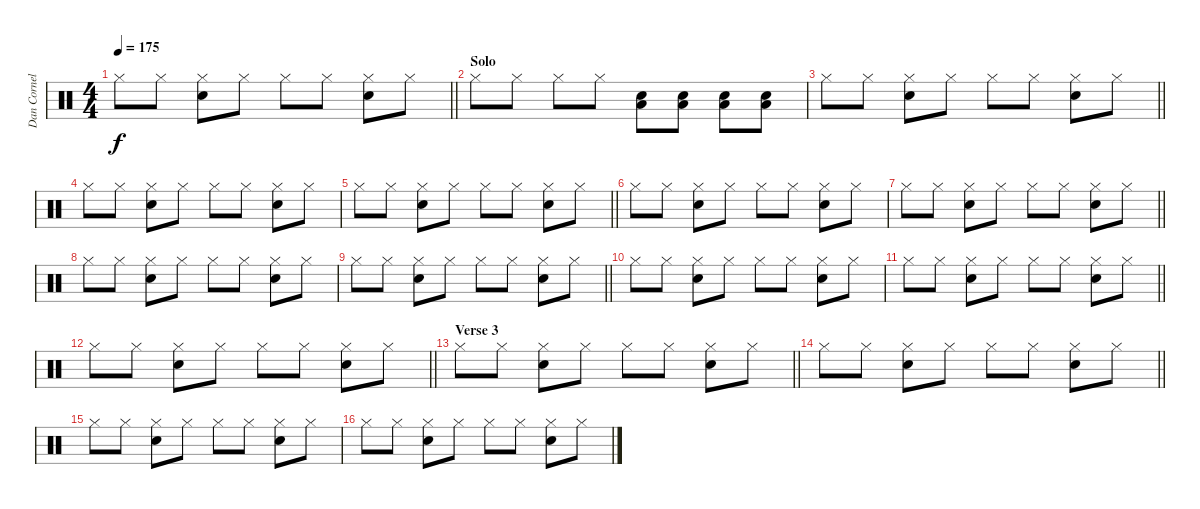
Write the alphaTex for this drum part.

\track ("Dan Cornelius" "Dan Cornel") {instrument percussion}
\staff {score}
\articulation defaults
\ts (4 4)
\tempo 175
\clef neutral
\barLineRight lightlight
\ks c "Hi-Hat (closed)".8{dy f} "Hi-Hat (closed)".8
("Hi-Hat (closed)" "Electric Snare (hit)").8 "Hi-Hat (closed)".8 "Hi-Hat (closed)".8 "Hi-Hat (closed)".8 ("Hi-Hat (closed)" "Electric Snare (hit)").8 "Hi-Hat (closed)".8 |
\section ("" "Solo")
"Hi-Hat (closed)".8 "Hi-Hat (closed)".8 "Hi-Hat (closed)".8 "Hi-Hat (closed)".8 ("Low Tom (hit)" "Electric Snare (hit)").8 ("Low Tom (hit)" "Electric Snare (hit)").8 ("Low Tom (hit)" "Electric Snare (hit)").8 ("Low Tom (hit)" "Electric Snare (hit)").8 |
\barLineRight lightlight "Hi-Hat (closed)".8 "Hi-Hat (closed)".8
("Hi-Hat (closed)" "Electric Snare (hit)").8 "Hi-Hat (closed)".8 "Hi-Hat (closed)".8 "Hi-Hat (closed)".8 ("Hi-Hat (closed)" "Electric Snare (hit)").8 "Hi-Hat (closed)".8 |
\section ("" "")
"Hi-Hat (closed)".8 "Hi-Hat (closed)".8 ("Hi-Hat (closed)" "Electric Snare (hit)").8 "Hi-Hat (closed)".8 "Hi-Hat (closed)".8 "Hi-Hat (closed)".8 ("Hi-Hat (closed)" "Electric Snare (hit)").8 "Hi-Hat (closed)".8 |
\barLineRight lightlight "Hi-Hat (closed)".8 "Hi-Hat (closed)".8
("Hi-Hat (closed)" "Electric Snare (hit)").8 "Hi-Hat (closed)".8 "Hi-Hat (closed)".8 "Hi-Hat (closed)".8 ("Hi-Hat (closed)" "Electric Snare (hit)").8 "Hi-Hat (closed)".8 |
"Hi-Hat (closed)".8 "Hi-Hat (closed)".8 ("Hi-Hat (closed)" "Electric Snare (hit)").8 "Hi-Hat (closed)".8 "Hi-Hat (closed)".8 "Hi-Hat (closed)".8 ("Hi-Hat (closed)" "Electric Snare (hit)").8 "Hi-Hat (closed)".8 |
\barLineRight lightlight "Hi-Hat (closed)".8 "Hi-Hat (closed)".8
("Hi-Hat (closed)" "Electric Snare (hit)").8 "Hi-Hat (closed)".8 "Hi-Hat (closed)".8 "Hi-Hat (closed)".8 ("Hi-Hat (closed)" "Electric Snare (hit)").8 "Hi-Hat (closed)".8 |
"Hi-Hat (closed)".8 "Hi-Hat (closed)".8 ("Hi-Hat (closed)" "Electric Snare (hit)").8 "Hi-Hat (closed)".8 "Hi-Hat (closed)".8 "Hi-Hat (closed)".8 ("Hi-Hat (closed)" "Electric Snare (hit)").8 "Hi-Hat (closed)".8 |
\barLineRight lightlight "Hi-Hat (closed)".8 "Hi-Hat (closed)".8
("Hi-Hat (closed)" "Electric Snare (hit)").8 "Hi-Hat (closed)".8 "Hi-Hat (closed)".8 "Hi-Hat (closed)".8 ("Hi-Hat (closed)" "Electric Snare (hit)").8 "Hi-Hat (closed)".8 |
"Hi-Hat (closed)".8 "Hi-Hat (closed)".8 ("Hi-Hat (closed)" "Electric Snare (hit)").8 "Hi-Hat (closed)".8 "Hi-Hat (closed)".8 "Hi-Hat (closed)".8 ("Hi-Hat (closed)" "Electric Snare (hit)").8 "Hi-Hat (closed)".8 |
\barLineRight lightlight "Hi-Hat (closed)".8 "Hi-Hat (closed)".8
("Hi-Hat (closed)" "Electric Snare (hit)").8 "Hi-Hat (closed)".8 "Hi-Hat (closed)".8 "Hi-Hat (closed)".8 ("Hi-Hat (closed)" "Electric Snare (hit)").8 "Hi-Hat (closed)".8 |
\barLineRight lightlight "Hi-Hat (closed)".8 "Hi-Hat (closed)".8
("Hi-Hat (closed)" "Electric Snare (hit)").8 "Hi-Hat (closed)".8 "Hi-Hat (closed)".8 "Hi-Hat (closed)".8 ("Hi-Hat (closed)" "Electric Snare (hit)").8 "Hi-Hat (closed)".8 |
\section ("" "Verse 3")
\barLineRight lightlight "Hi-Hat (closed)".8 "Hi-Hat (closed)".8
("Hi-Hat (closed)" "Electric Snare (hit)").8 "Hi-Hat (closed)".8 "Hi-Hat (closed)".8 "Hi-Hat (closed)".8 ("Hi-Hat (closed)" "Electric Snare (hit)").8 "Hi-Hat (closed)".8 |
\barLineRight lightlight "Hi-Hat (closed)".8 "Hi-Hat (closed)".8
("Hi-Hat (closed)" "Electric Snare (hit)").8 "Hi-Hat (closed)".8 "Hi-Hat (closed)".8 "Hi-Hat (closed)".8 ("Hi-Hat (closed)" "Electric Snare (hit)").8 "Hi-Hat (closed)".8 |
\section ("" "")
"Hi-Hat (closed)".8 "Hi-Hat (closed)".8 ("Hi-Hat (closed)" "Electric Snare (hit)").8 "Hi-Hat (closed)".8 "Hi-Hat (closed)".8 "Hi-Hat (closed)".8 ("Hi-Hat (closed)" "Electric Snare (hit)").8 "Hi-Hat (closed)".8 |
"Hi-Hat (closed)".8 "Hi-Hat (closed)".8 ("Hi-Hat (closed)" "Electric Snare (hit)").8 "Hi-Hat (closed)".8 "Hi-Hat (closed)".8 "Hi-Hat (closed)".8 ("Hi-Hat (closed)" "Electric Snare (hit)").8 "Hi-Hat (closed)".8
